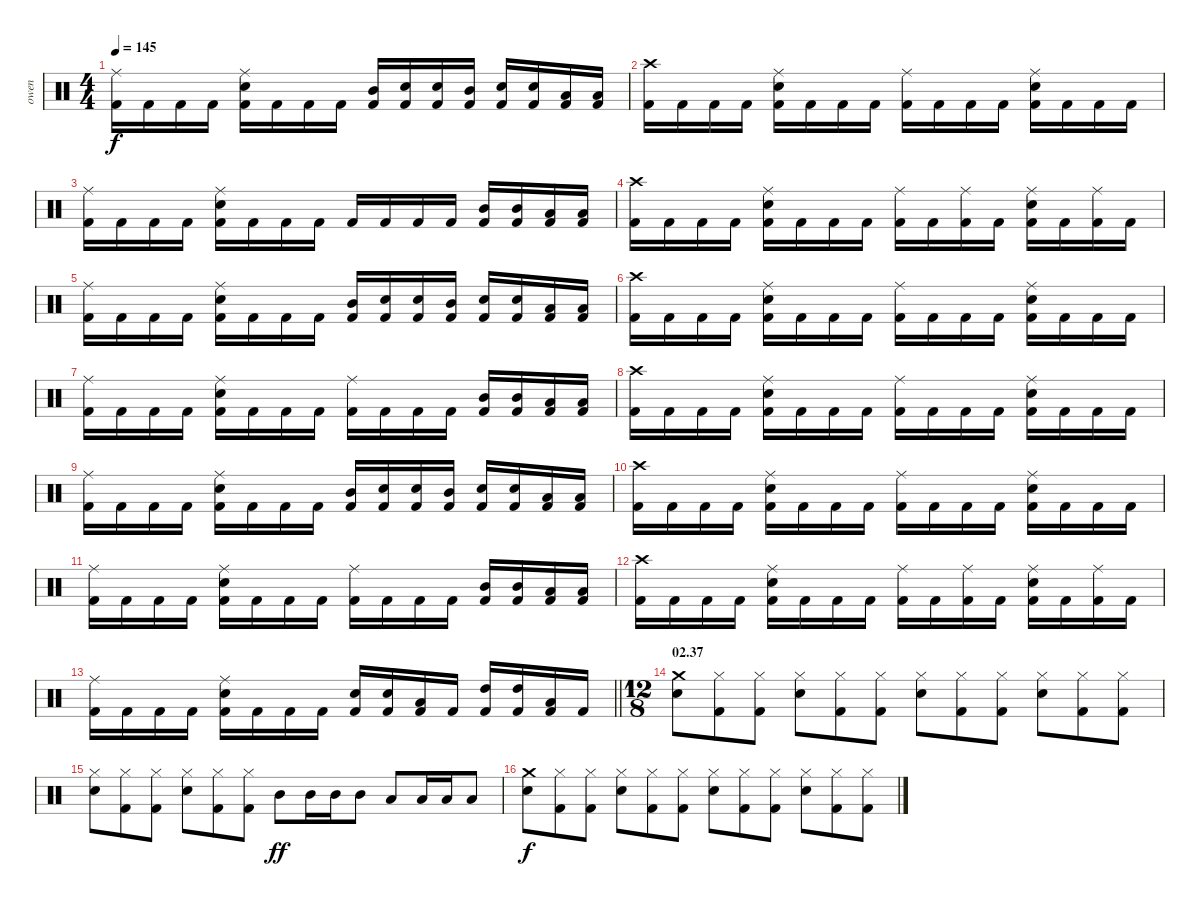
\track ("owen" "owen") {instrument percussion}
\staff {score}
\articulation defaults
\ts (4 4)
\tempo 145
\clef neutral
\ks c
("Ride (middle)" "Kick (hit) 2").16{dy f} "Kick (hit) 2".16 "Kick (hit) 2".16 "Kick (hit) 2".16 ("Ride (middle)" "Snare (hit) 2" "Kick (hit) 2").16 "Kick (hit) 2".16 "Kick (hit) 2".16 "Kick (hit) 2".16 ("Mid Tom (hit)" "Kick (hit) 2").16 ("Snare (hit) 2" "Kick (hit) 2").16 ("Snare (hit) 2" "Kick (hit) 2").16 ("Mid Tom (hit)" "Kick (hit) 2").16 ("Snare (hit) 2" "Kick (hit) 2").16 ("Snare (hit) 2" "Kick (hit) 2").16 ("Low Tom (hit)" "Kick (hit) 2").16 ("Low Tom (hit)" "Kick (hit) 2").16 |
("Crash high (hit)" "Kick (hit) 2").16 "Kick (hit) 2".16 "Kick (hit) 2".16 "Kick (hit) 2".16 ("Ride (middle)" "Snare (hit) 2" "Kick (hit) 2").16 "Kick (hit) 2".16 "Kick (hit) 2".16 "Kick (hit) 2".16 ("Ride (middle)" "Kick (hit) 2").16 "Kick (hit) 2".16 "Kick (hit) 2".16 "Kick (hit) 2".16 ("Ride (middle)" "Snare (hit) 2" "Kick (hit) 2").16 "Kick (hit) 2".16 "Kick (hit) 2".16 "Kick (hit) 2".16 |
("Ride (middle)" "Kick (hit) 2").16 "Kick (hit) 2".16 "Kick (hit) 2".16 "Kick (hit) 2".16 ("Ride (middle)" "Snare (hit) 2" "Kick (hit) 2").16 "Kick (hit) 2".16 "Kick (hit) 2".16 "Kick (hit) 2".16 "Kick (hit) 2".16 "Kick (hit) 2".16 "Kick (hit) 2".16 "Kick (hit) 2".16 ("Mid Tom (hit)" "Kick (hit) 2").16 ("Mid Tom (hit)" "Kick (hit) 2").16 ("Low Tom (hit)" "Kick (hit) 2").16 ("Low Tom (hit)" "Kick (hit) 2").16 |
("Crash high (hit)" "Kick (hit) 2").16 "Kick (hit) 2".16 "Kick (hit) 2".16 "Kick (hit) 2".16 ("Ride (middle)" "Snare (hit) 2" "Kick (hit) 2").16 "Kick (hit) 2".16 "Kick (hit) 2".16 "Kick (hit) 2".16 ("Ride (middle)" "Kick (hit) 2").16 "Kick (hit) 2".16 ("Ride (middle)" "Kick (hit) 2").16 "Kick (hit) 2".16 ("Ride (middle)" "Snare (hit) 2" "Kick (hit) 2").16 "Kick (hit) 2".16 ("Ride (middle)" "Kick (hit) 2").16 "Kick (hit) 2".16 |
("Ride (middle)" "Kick (hit) 2").16 "Kick (hit) 2".16 "Kick (hit) 2".16 "Kick (hit) 2".16 ("Ride (middle)" "Snare (hit) 2" "Kick (hit) 2").16 "Kick (hit) 2".16 "Kick (hit) 2".16 "Kick (hit) 2".16 ("Mid Tom (hit)" "Kick (hit) 2").16 ("Snare (hit) 2" "Kick (hit) 2").16 ("Snare (hit) 2" "Kick (hit) 2").16 ("Mid Tom (hit)" "Kick (hit) 2").16 ("Snare (hit) 2" "Kick (hit) 2").16 ("Snare (hit) 2" "Kick (hit) 2").16 ("Low Tom (hit)" "Kick (hit) 2").16 ("Low Tom (hit)" "Kick (hit) 2").16 |
("Crash high (hit)" "Kick (hit) 2").16 "Kick (hit) 2".16 "Kick (hit) 2".16 "Kick (hit) 2".16 ("Ride (middle)" "Snare (hit) 2" "Kick (hit) 2").16 "Kick (hit) 2".16 "Kick (hit) 2".16 "Kick (hit) 2".16 ("Ride (middle)" "Kick (hit) 2").16 "Kick (hit) 2".16 "Kick (hit) 2".16 "Kick (hit) 2".16 ("Ride (middle)" "Snare (hit) 2" "Kick (hit) 2").16 "Kick (hit) 2".16 "Kick (hit) 2".16 "Kick (hit) 2".16 |
("Ride (middle)" "Kick (hit) 2").16 "Kick (hit) 2".16 "Kick (hit) 2".16 "Kick (hit) 2".16 ("Ride (middle)" "Snare (hit) 2" "Kick (hit) 2").16 "Kick (hit) 2".16 "Kick (hit) 2".16 "Kick (hit) 2".16 ("Ride (middle)" "Kick (hit) 2").16 "Kick (hit) 2".16 "Kick (hit) 2".16 "Kick (hit) 2".16 ("Mid Tom (hit)" "Kick (hit) 2").16 ("Mid Tom (hit)" "Kick (hit) 2").16 ("Low Tom (hit)" "Kick (hit) 2").16 ("Low Tom (hit)" "Kick (hit) 2").16 |
("Crash high (hit)" "Kick (hit) 2").16 "Kick (hit) 2".16 "Kick (hit) 2".16 "Kick (hit) 2".16 ("Ride (middle)" "Snare (hit) 2" "Kick (hit) 2").16 "Kick (hit) 2".16 "Kick (hit) 2".16 "Kick (hit) 2".16 ("Ride (middle)" "Kick (hit) 2").16 "Kick (hit) 2".16 "Kick (hit) 2".16 "Kick (hit) 2".16 ("Ride (middle)" "Snare (hit) 2" "Kick (hit) 2").16 "Kick (hit) 2".16 "Kick (hit) 2".16 "Kick (hit) 2".16 |
("Ride (middle)" "Kick (hit) 2").16 "Kick (hit) 2".16 "Kick (hit) 2".16 "Kick (hit) 2".16 ("Ride (middle)" "Snare (hit) 2" "Kick (hit) 2").16 "Kick (hit) 2".16 "Kick (hit) 2".16 "Kick (hit) 2".16 ("Mid Tom (hit)" "Kick (hit) 2").16 ("Snare (hit) 2" "Kick (hit) 2").16 ("Snare (hit) 2" "Kick (hit) 2").16 ("Mid Tom (hit)" "Kick (hit) 2").16 ("Snare (hit) 2" "Kick (hit) 2").16 ("Snare (hit) 2" "Kick (hit) 2").16 ("Low Tom (hit)" "Kick (hit) 2").16 ("Low Tom (hit)" "Kick (hit) 2").16 |
("Crash high (hit)" "Kick (hit) 2").16 "Kick (hit) 2".16 "Kick (hit) 2".16 "Kick (hit) 2".16 ("Ride (middle)" "Snare (hit) 2" "Kick (hit) 2").16 "Kick (hit) 2".16 "Kick (hit) 2".16 "Kick (hit) 2".16 ("Ride (middle)" "Kick (hit) 2").16 "Kick (hit) 2".16 "Kick (hit) 2".16 "Kick (hit) 2".16 ("Ride (middle)" "Snare (hit) 2" "Kick (hit) 2").16 "Kick (hit) 2".16 "Kick (hit) 2".16 "Kick (hit) 2".16 |
("Ride (middle)" "Kick (hit) 2").16 "Kick (hit) 2".16 "Kick (hit) 2".16 "Kick (hit) 2".16 ("Ride (middle)" "Snare (hit) 2" "Kick (hit) 2").16 "Kick (hit) 2".16 "Kick (hit) 2".16 "Kick (hit) 2".16 ("Ride (middle)" "Kick (hit) 2").16 "Kick (hit) 2".16 "Kick (hit) 2".16 "Kick (hit) 2".16 ("Mid Tom (hit)" "Kick (hit) 2").16 ("Mid Tom (hit)" "Kick (hit) 2").16 ("Low Tom (hit)" "Kick (hit) 2").16 ("Low Tom (hit)" "Kick (hit) 2").16 |
("Crash high (hit)" "Kick (hit) 2").16 "Kick (hit) 2".16 "Kick (hit) 2".16 "Kick (hit) 2".16 ("Ride (middle)" "Snare (hit) 2" "Kick (hit) 2").16 "Kick (hit) 2".16 "Kick (hit) 2".16 "Kick (hit) 2".16 ("Ride (middle)" "Kick (hit) 2").16 "Kick (hit) 2".16 ("Ride (middle)" "Kick (hit) 2").16 "Kick (hit) 2".16 ("Ride (middle)" "Snare (hit) 2" "Kick (hit) 2").16 "Kick (hit) 2".16 ("Ride (middle)" "Kick (hit) 2").16 "Kick (hit) 2".16 |
\barLineRight lightlight
("Ride (middle)" "Kick (hit) 2").16 "Kick (hit) 2".16 "Kick (hit) 2".16 "Kick (hit) 2".16 ("Ride (middle)" "Snare (hit) 2" "Kick (hit) 2").16 "Kick (hit) 2".16 "Kick (hit) 2".16 "Kick (hit) 2".16 ("Snare (hit) 2" "Kick (hit) 2").16 ("Snare (hit) 2" "Kick (hit) 2").16 ("Low Tom (hit)" "Kick (hit) 2").16 "Kick (hit) 2".16 ("High Tom (hit)" "Kick (hit) 2").16 ("High Tom (hit)" "Kick (hit) 2").16 ("Low Tom (hit)" "Kick (hit) 2").16 "Kick (hit) 2".16 |
\ts (12 8)
\section ("" "02.37")
("Crash medium (hit)" "Snare (hit) 2").8 ("Hi-Hat (closed)" "Kick (hit) 2").8 ("Hi-Hat (closed)" "Kick (hit) 2").8 ("Hi-Hat (closed)" "Snare (hit) 2").8 ("Hi-Hat (closed)" "Kick (hit) 2").8 ("Hi-Hat (closed)" "Kick (hit) 2").8 ("Hi-Hat (closed)" "Snare (hit) 2").8 ("Hi-Hat (closed)" "Kick (hit) 2").8 ("Hi-Hat (closed)" "Kick (hit) 2").8 ("Hi-Hat (closed)" "Snare (hit) 2").8 ("Hi-Hat (closed)" "Kick (hit) 2").8 ("Hi-Hat (closed)" "Kick (hit) 2").8 |
("Hi-Hat (closed)" "Snare (hit) 2").8 ("Hi-Hat (closed)" "Kick (hit) 2").8 ("Hi-Hat (closed)" "Kick (hit) 2").8 ("Hi-Hat (closed)" "Snare (hit) 2").8 ("Hi-Hat (closed)" "Kick (hit) 2").8 ("Hi-Hat (closed)" "Kick (hit) 2").8 "Mid Tom (hit)".8{dy ff} "Mid Tom (hit)".16 "Mid Tom (hit)".16 "Mid Tom (hit)".8 "Low Tom (hit)".8 "Low Tom (hit)".16 "Low Tom (hit)".16 "Low Tom (hit)".8 |
("Crash medium (hit)" "Snare (hit) 2").8{dy f} ("Hi-Hat (closed)" "Kick (hit) 2").8 ("Hi-Hat (closed)" "Kick (hit) 2").8 ("Hi-Hat (closed)" "Snare (hit) 2").8 ("Hi-Hat (closed)" "Kick (hit) 2").8 ("Hi-Hat (closed)" "Kick (hit) 2").8 ("Hi-Hat (closed)" "Snare (hit) 2").8 ("Hi-Hat (closed)" "Kick (hit) 2").8 ("Hi-Hat (closed)" "Kick (hit) 2").8 ("Hi-Hat (closed)" "Snare (hit) 2").8 ("Hi-Hat (closed)" "Kick (hit) 2").8 ("Hi-Hat (closed)" "Kick (hit) 2").8
